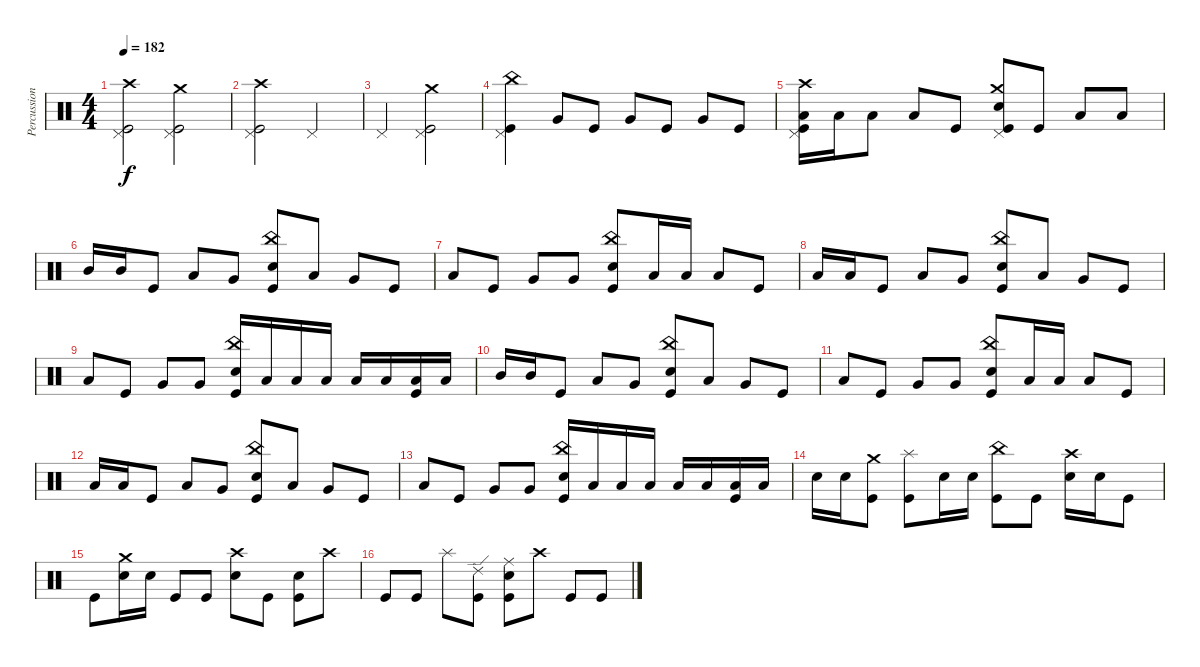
\track ("Percussion" "Percussion") {instrument percussion}
\staff {score}
\articulation defaults
\ts (4 4)
\tempo 182
\clef neutral
\ks c
("Crash high (hit)" "Pedal Hi-Hat (hit)" "Kick (hit)").2{dy f} ("Crash medium (hit)" "Pedal Hi-Hat (hit)" "Kick (hit)").2 |
("Crash high (hit)" "Pedal Hi-Hat (hit)" "Kick (hit)").2 "Pedal Hi-Hat (hit)".2 |
"Pedal Hi-Hat (hit)".2 ("Crash medium (hit)" "Pedal Hi-Hat (hit)" "Kick (hit)").2 |
("China (hit)" "Pedal Hi-Hat (hit)" "Kick (hit)").4 "Very Low Tom (hit)".8 "Kick (hit)".8 "Very Low Tom (hit)".8 "Kick (hit)".8 "Very Low Tom (hit)".8 "Kick (hit)".8 |
("Crash high (hit)" "Pedal Hi-Hat (hit)" "Low Tom (hit)" "Kick (hit)").16 "Low Tom (hit)".16 "Low Tom (hit)".8 "Low Floor Tom (hit)".8 "Kick (hit)".8 ("Crash medium (hit)" "Pedal Hi-Hat (hit)" "Snare (hit) 2" "Kick (hit)").8 "Kick (hit)".8 "Low Floor Tom (hit)".8 "Low Floor Tom (hit)".8 |
"Mid Tom (hit)".16 "Mid Tom (hit)".16 "Kick (hit)".8 "Low Tom (hit)".8 "Very Low Tom (hit)".8 ("China (hit)" "Snare (hit) 2" "Kick (hit)").8 "Low Tom (hit)".8 "Very Low Tom (hit)".8 "Kick (hit)".8 |
"Low Tom (hit)".8 "Kick (hit)".8 "Very Low Tom (hit)".8 "Very Low Tom (hit)".8 ("China (hit)" "Snare (hit) 2" "Kick (hit)").8 "Low Tom (hit)".16 "Low Floor Tom (hit)".16 "Low Floor Tom (hit)".8 "Kick (hit)".8 |
"Low Tom (hit)".16 "Low Tom (hit)".16 "Kick (hit)".8 "Low Tom (hit)".8 "Very Low Tom (hit)".8 ("China (hit)" "Snare (hit) 2" "Kick (hit)").8 "Low Tom (hit)".8 "Very Low Tom (hit)".8 "Kick (hit)".8 |
"Low Tom (hit)".8 "Kick (hit)".8 "Very Low Tom (hit)".8 "Very Low Tom (hit)".8 ("China (hit)" "Snare (hit) 2" "Kick (hit)").16 "Low Floor Tom (hit)".16 "Low Floor Tom (hit)".16 "Low Floor Tom (hit)".16 "Low Floor Tom (hit)".16 "Low Floor Tom (hit)".16 ("Low Floor Tom (hit)" "Kick (hit)").16 "Low Floor Tom (hit)".16 |
"Mid Tom (hit)".16 "Mid Tom (hit)".16 "Kick (hit)".8 "Low Tom (hit)".8 "Very Low Tom (hit)".8 ("China (hit)" "Snare (hit) 2" "Kick (hit)").8 "Low Tom (hit)".8 "Very Low Tom (hit)".8 "Kick (hit)".8 |
"Low Tom (hit)".8 "Kick (hit)".8 "Very Low Tom (hit)".8 "Very Low Tom (hit)".8 ("China (hit)" "Snare (hit) 2" "Kick (hit)").8 "Low Tom (hit)".16 "Low Floor Tom (hit)".16 "Low Floor Tom (hit)".8 "Kick (hit)".8 |
"Low Tom (hit)".16 "Low Tom (hit)".16 "Kick (hit)".8 "Low Tom (hit)".8 "Very Low Tom (hit)".8 ("China (hit)" "Snare (hit) 2" "Kick (hit)").8 "Low Tom (hit)".8 "Very Low Tom (hit)".8 "Kick (hit)".8 |
"Low Tom (hit)".8 "Kick (hit)".8 "Very Low Tom (hit)".8 "Very Low Tom (hit)".8 ("China (hit)" "Snare (hit) 2" "Kick (hit)").16 "Low Floor Tom (hit)".16 "Low Floor Tom (hit)".16 "Low Floor Tom (hit)".16 "Low Floor Tom (hit)".16 "Low Floor Tom (hit)".16 ("Low Floor Tom (hit)" "Kick (hit)").16 "Low Floor Tom (hit)".16 |
"Snare (hit) 2".16 "Snare (hit) 2".16 ("Crash medium (hit)" "Kick (hit)").8 ("Splash (hit)" "Kick (hit)").8 "Snare (hit) 2".16 "Snare (hit) 2".16 ("China (hit)" "Kick (hit)").8 "Kick (hit)".8 ("Crash high (hit)" "Snare (hit) 2").16 "Snare (hit) 2".16 "Kick (hit)".8 |
"Kick (hit)".8 ("Crash medium (hit)" "Snare (hit) 2").16 "Snare (hit) 2".16 "Kick (hit)".8 "Kick (hit)".8 ("Crash high (hit)" "Snare (hit) 2").8 "Kick (hit)".8 ("Snare (hit) 2" "Kick (hit)").8 "Crash high (hit)".8 |
"Kick (hit)".8 "Kick (hit)".8 "Splash (hit)".8 ("Ride (edge) 2" "Kick (hit)").8 ("Ride (middle)" "Snare (hit) 2" "Kick (hit)").8 "Crash high (hit)".8 "Kick (hit)".8 "Kick (hit)".8
